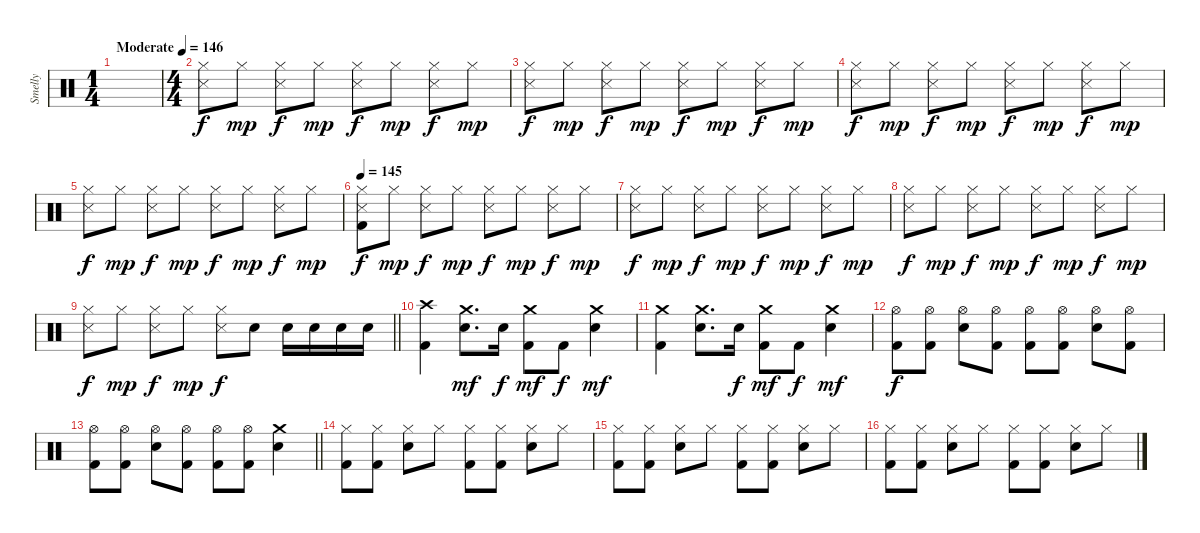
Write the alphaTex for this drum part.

\track ("Smelly" "Smelly") {instrument percussion}
\staff {score}
\articulation defaults
\ts (1 4)
\tempo (146 "Moderate")
\clef neutral
\ks c
|
\ts (4 4)
("Hi-Hat (closed)" "Snare (side stick) 3").8 "Hi-Hat (closed)".8{dy mp} ("Hi-Hat (closed)" "Snare (side stick) 3").8{dy f} "Hi-Hat (closed)".8{dy mp} ("Hi-Hat (closed)" "Snare (side stick) 3").8{dy f} "Hi-Hat (closed)".8{dy mp} ("Hi-Hat (closed)" "Snare (side stick) 3").8{dy f} "Hi-Hat (closed)".8{dy mp} |
("Hi-Hat (closed)" "Snare (side stick) 3").8{dy f} "Hi-Hat (closed)".8{dy mp} ("Hi-Hat (closed)" "Snare (side stick) 3").8{dy f} "Hi-Hat (closed)".8{dy mp} ("Hi-Hat (closed)" "Snare (side stick) 3").8{dy f} "Hi-Hat (closed)".8{dy mp} ("Hi-Hat (closed)" "Snare (side stick) 3").8{dy f} "Hi-Hat (closed)".8{dy mp} |
("Hi-Hat (closed)" "Snare (side stick) 3").8{dy f} "Hi-Hat (closed)".8{dy mp} ("Hi-Hat (closed)" "Snare (side stick) 3").8{dy f} "Hi-Hat (closed)".8{dy mp} ("Hi-Hat (closed)" "Snare (side stick) 3").8{dy f} "Hi-Hat (closed)".8{dy mp} ("Hi-Hat (closed)" "Snare (side stick) 3").8{dy f} "Hi-Hat (closed)".8{dy mp} |
("Hi-Hat (closed)" "Snare (side stick) 3").8{dy f} "Hi-Hat (closed)".8{dy mp} ("Hi-Hat (closed)" "Snare (side stick) 3").8{dy f} "Hi-Hat (closed)".8{dy mp} ("Hi-Hat (closed)" "Snare (side stick) 3").8{dy f} "Hi-Hat (closed)".8{dy mp} ("Hi-Hat (closed)" "Snare (side stick) 3").8{dy f} "Hi-Hat (closed)".8{dy mp} |
\tempo 145
("Hi-Hat (closed)" "Snare (side stick) 3" "Kick (hit) 2").8{dy f} "Hi-Hat (closed)".8{dy mp} ("Hi-Hat (closed)" "Snare (side stick) 3").8{dy f} "Hi-Hat (closed)".8{dy mp} ("Hi-Hat (closed)" "Snare (side stick) 3").8{dy f} "Hi-Hat (closed)".8{dy mp} ("Hi-Hat (closed)" "Snare (side stick) 3").8{dy f} "Hi-Hat (closed)".8{dy mp} |
("Hi-Hat (closed)" "Snare (side stick) 3").8{dy f} "Hi-Hat (closed)".8{dy mp} ("Hi-Hat (closed)" "Snare (side stick) 3").8{dy f} "Hi-Hat (closed)".8{dy mp} ("Hi-Hat (closed)" "Snare (side stick) 3").8{dy f} "Hi-Hat (closed)".8{dy mp} ("Hi-Hat (closed)" "Snare (side stick) 3").8{dy f} "Hi-Hat (closed)".8{dy mp} |
("Hi-Hat (closed)" "Snare (side stick) 3").8{dy f} "Hi-Hat (closed)".8{dy mp} ("Hi-Hat (closed)" "Snare (side stick) 3").8{dy f} "Hi-Hat (closed)".8{dy mp} ("Hi-Hat (closed)" "Snare (side stick) 3").8{dy f} "Hi-Hat (closed)".8{dy mp} ("Hi-Hat (closed)" "Snare (side stick) 3").8{dy f} "Hi-Hat (closed)".8{dy mp} |
\barLineRight lightlight
("Hi-Hat (closed)" "Snare (side stick) 3").8{dy f} "Hi-Hat (closed)".8{dy mp} ("Hi-Hat (closed)" "Snare (side stick) 3").8{dy f} "Hi-Hat (closed)".8{dy mp} ("Hi-Hat (closed)" "Snare (side stick) 3").8{dy f} "Electric Snare (hit)".8 "Electric Snare (hit)".16 "Electric Snare (hit)".16 "Electric Snare (hit)".16 "Electric Snare (hit)".16 |
\section ("" "")
("Crash high (hit)" "Kick (hit) 2").4 ("Crash medium (hit)" "Electric Snare (hit)").8{d dy mf} "Electric Snare (hit)".16{dy f} ("Crash medium (hit)" "Kick (hit) 2").8{dy mf} "Kick (hit) 2".8{dy f} ("Crash medium (hit)" "Electric Snare (hit)").4{dy mf} |
("Crash medium (hit)" "Kick (hit) 2").4 ("Crash medium (hit)" "Electric Snare (hit)").8{d} "Electric Snare (hit)".16{dy f} ("Crash medium (hit)" "Kick (hit) 2").8{dy mf} "Kick (hit) 2".8{dy f} ("Crash medium (hit)" "Electric Snare (hit)").4{dy mf} |
("Hi-Hat (open)" "Kick (hit) 2").8{dy f} ("Hi-Hat (open)" "Kick (hit) 2").8 ("Hi-Hat (open)" "Electric Snare (hit)").8 ("Hi-Hat (open)" "Kick (hit) 2").8 ("Hi-Hat (open)" "Kick (hit) 2").8 ("Hi-Hat (open)" "Kick (hit) 2").8 ("Hi-Hat (open)" "Electric Snare (hit)").8 ("Hi-Hat (open)" "Kick (hit) 2").8 |
\barLineRight lightlight
("Hi-Hat (open)" "Kick (hit) 2").8 ("Hi-Hat (open)" "Kick (hit) 2").8 ("Hi-Hat (open)" "Electric Snare (hit)").8 ("Hi-Hat (open)" "Kick (hit) 2").8 ("Hi-Hat (open)" "Kick (hit) 2").8 ("Hi-Hat (open)" "Kick (hit) 2").8 ("Crash medium (hit)" "Electric Snare (hit)").4 |
\section ("" "")
("Hi-Hat (closed)" "Kick (hit) 2").8 ("Hi-Hat (closed)" "Kick (hit) 2").8 ("Hi-Hat (closed)" "Electric Snare (hit)").8 "Hi-Hat (closed)".8 ("Hi-Hat (closed)" "Kick (hit) 2").8 ("Hi-Hat (closed)" "Kick (hit) 2").8 ("Hi-Hat (closed)" "Electric Snare (hit)").8 "Hi-Hat (closed)".8 |
("Hi-Hat (closed)" "Kick (hit) 2").8 ("Hi-Hat (closed)" "Kick (hit) 2").8 ("Hi-Hat (closed)" "Electric Snare (hit)").8 "Hi-Hat (closed)".8 ("Hi-Hat (closed)" "Kick (hit) 2").8 ("Hi-Hat (closed)" "Kick (hit) 2").8 ("Hi-Hat (closed)" "Electric Snare (hit)").8 "Hi-Hat (closed)".8 |
("Hi-Hat (closed)" "Kick (hit) 2").8 ("Hi-Hat (closed)" "Kick (hit) 2").8 ("Hi-Hat (closed)" "Electric Snare (hit)").8 "Hi-Hat (closed)".8 ("Hi-Hat (closed)" "Kick (hit) 2").8 ("Hi-Hat (closed)" "Kick (hit) 2").8 ("Hi-Hat (closed)" "Electric Snare (hit)").8 "Hi-Hat (closed)".8
